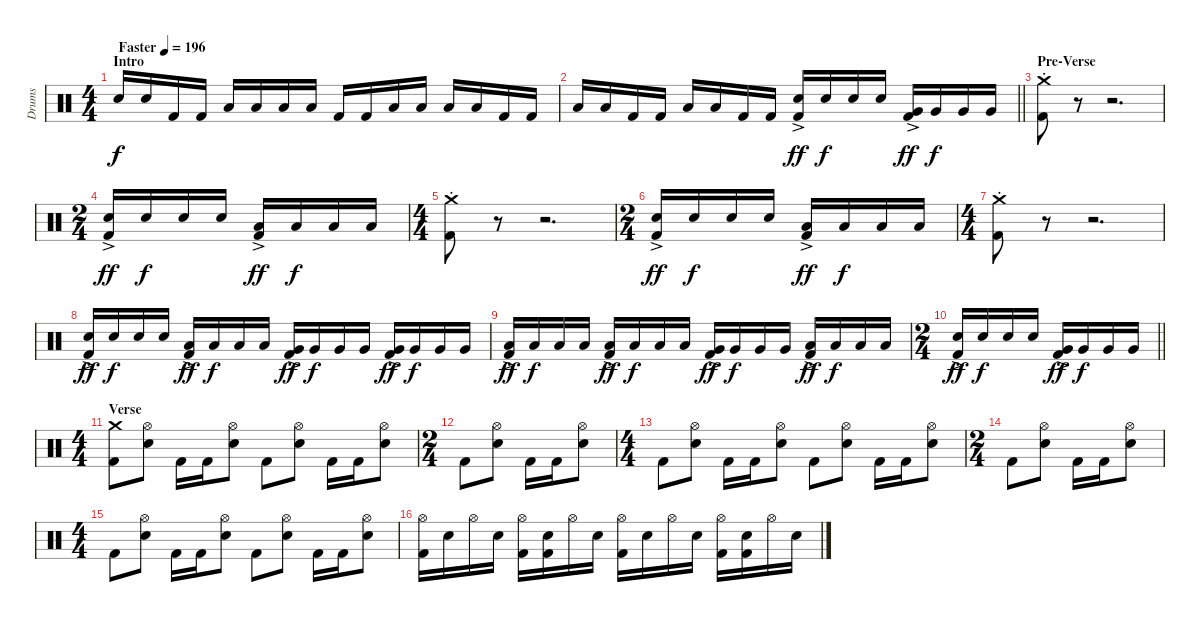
\track ("Drums" "Drums") {instrument percussion}
\staff {score}
\articulation defaults
\ts (4 4)
\section ("" "Intro")
\tempo (196 "Faster")
\clef neutral
\ks c "Electric Snare (hit)".16{dy f} "Electric Snare (hit)".16 "Kick (hit) 2".16 "Kick (hit) 2".16 "Low Tom (hit)".16 "Low Tom (hit)".16 "Low Tom (hit)".16 "Low Tom (hit)".16 "Kick (hit) 2".16 "Kick (hit) 2".16 "Low Tom (hit)".16 "Low Tom (hit)".16 "Low Tom (hit)".16 "Low Tom (hit)".16 "Kick (hit) 2".16 "Kick (hit) 2".16
|
\barLineRight lightlight "Low Tom (hit)".16 "Low Tom (hit)".16 "Kick (hit) 2".16 "Kick (hit) 2".16 "Low Tom (hit)".16 "Low Tom (hit)".16 "Kick (hit) 2".16 "Kick (hit) 2".16
("Electric Snare (hit)"{ac} "Kick (hit) 2").16{dy ff} "Electric Snare (hit)".16{dy f} "Electric Snare (hit)".16 "Electric Snare (hit)".16 ("Very Low Tom (hit)"{ac} "Kick (hit) 2").16{dy ff} "Very Low Tom (hit)".16{dy f} "Very Low Tom (hit)".16 "Very Low Tom (hit)".16 |
\section ("" "Pre-Verse")
("Crash medium (hit)"{st} "Kick (hit) 2").8 r.8{volume 0} r.2{d} |
\ts (2 4)
("Electric Snare (hit)"{ac} "Kick (hit) 2").16{dy ff volume 14} "Electric Snare (hit)".16{dy f} "Electric Snare (hit)".16 "Electric Snare (hit)".16 ("Low Tom (hit)"{ac} "Kick (hit) 2").16{dy ff} "Low Tom (hit)".16{dy f} "Low Tom (hit)".16 "Low Tom (hit)".16 |
\ts (4 4)
("Crash medium (hit)"{st} "Kick (hit) 2").8 r.8{volume 0} r.2{d} |
\ts (2 4)
("Electric Snare (hit)"{ac} "Kick (hit) 2").16{dy ff volume 14} "Electric Snare (hit)".16{dy f} "Electric Snare (hit)".16 "Electric Snare (hit)".16 ("Low Tom (hit)"{ac} "Kick (hit) 2").16{dy ff} "Low Tom (hit)".16{dy f} "Low Tom (hit)".16 "Low Tom (hit)".16 |
\ts (4 4)
("Crash medium (hit)"{st} "Kick (hit) 2").8 r.8{volume 0} r.2{d} |
("Electric Snare (hit)"{ac} "Kick (hit) 2").16{dy ff volume 14} "Electric Snare (hit)".16{dy f} "Electric Snare (hit)".16 "Electric Snare (hit)".16 ("Low Tom (hit)"{ac} "Kick (hit) 2").16{dy ff} "Low Tom (hit)".16{dy f} "Low Tom (hit)".16 "Low Tom (hit)".16 ("Very Low Tom (hit)"{ac} "Kick (hit) 2").16{dy ff} "Very Low Tom (hit)".16{dy f} "Very Low Tom (hit)".16 "Very Low Tom (hit)".16 ("Very Low Tom (hit)"{ac} "Kick (hit) 2").16{dy ff} "Very Low Tom (hit)".16{dy f} "Very Low Tom (hit)".16 "Very Low Tom (hit)".16 |
("Low Floor Tom (hit)"{ac} "Kick (hit) 2").16{dy ff} "Low Floor Tom (hit)".16{dy f} "Low Floor Tom (hit)".16 "Low Floor Tom (hit)".16 ("Low Tom (hit)"{ac} "Kick (hit) 2").16{dy ff} "Low Tom (hit)".16{dy f} "Low Tom (hit)".16 "Low Tom (hit)".16 ("Very Low Tom (hit)"{ac} "Kick (hit) 2").16{dy ff} "Very Low Tom (hit)".16{dy f} "Very Low Tom (hit)".16 "Very Low Tom (hit)".16 ("Low Floor Tom (hit)"{ac} "Kick (hit) 2").16{dy ff} "Low Floor Tom (hit)".16{dy f} "Low Floor Tom (hit)".16 "Low Floor Tom (hit)".16 |
\ts (2 4)
\barLineRight lightlight
("Electric Snare (hit)"{ac} "Kick (hit) 2").16{dy ff} "Electric Snare (hit)".16{dy f} "Electric Snare (hit)".16 "Electric Snare (hit)".16 ("Very Low Tom (hit)"{ac} "Kick (hit) 2").16{dy ff} "Very Low Tom (hit)".16{dy f} "Very Low Tom (hit)".16 "Very Low Tom (hit)".16 |
\ts (4 4)
\section ("" "Verse")
("Crash medium (hit)" "Kick (hit) 2").8 ("Hi-Hat (open)" "Electric Snare (hit)").8 "Kick (hit) 2".16 "Kick (hit) 2".16 ("Hi-Hat (open)" "Electric Snare (hit)").8 "Kick (hit) 2".8 ("Hi-Hat (open)" "Electric Snare (hit)").8 "Kick (hit) 2".16 "Kick (hit) 2".16 ("Hi-Hat (open)" "Electric Snare (hit)").8 |
\ts (2 4)
"Kick (hit) 2".8 ("Hi-Hat (open)" "Electric Snare (hit)").8 "Kick (hit) 2".16 "Kick (hit) 2".16 ("Hi-Hat (open)" "Electric Snare (hit)").8 |
\ts (4 4)
"Kick (hit) 2".8 ("Hi-Hat (open)" "Electric Snare (hit)").8 "Kick (hit) 2".16 "Kick (hit) 2".16 ("Hi-Hat (open)" "Electric Snare (hit)").8 "Kick (hit) 2".8 ("Hi-Hat (open)" "Electric Snare (hit)").8 "Kick (hit) 2".16 "Kick (hit) 2".16 ("Hi-Hat (open)" "Electric Snare (hit)").8 |
\ts (2 4)
"Kick (hit) 2".8 ("Hi-Hat (open)" "Electric Snare (hit)").8 "Kick (hit) 2".16 "Kick (hit) 2".16 ("Hi-Hat (open)" "Electric Snare (hit)").8 |
\ts (4 4)
"Kick (hit) 2".8 ("Hi-Hat (open)" "Electric Snare (hit)").8 "Kick (hit) 2".16 "Kick (hit) 2".16 ("Hi-Hat (open)" "Electric Snare (hit)").8 "Kick (hit) 2".8 ("Hi-Hat (open)" "Electric Snare (hit)").8 "Kick (hit) 2".16 "Kick (hit) 2".16 ("Hi-Hat (open)" "Electric Snare (hit)").8 |
("Hi-Hat (open)" "Kick (hit) 2").16 "Electric Snare (hit)".16 "Hi-Hat (open)".16 "Electric Snare (hit)".16 ("Hi-Hat (open)" "Kick (hit) 2").16 ("Electric Snare (hit)" "Kick (hit) 2").16 "Hi-Hat (open)".16 "Electric Snare (hit)".16 ("Hi-Hat (open)" "Kick (hit) 2").16 "Electric Snare (hit)".16 "Hi-Hat (open)".16 "Electric Snare (hit)".16 ("Hi-Hat (open)" "Kick (hit) 2").16 ("Electric Snare (hit)" "Kick (hit) 2").16 "Hi-Hat (open)".16 "Electric Snare (hit)".16
